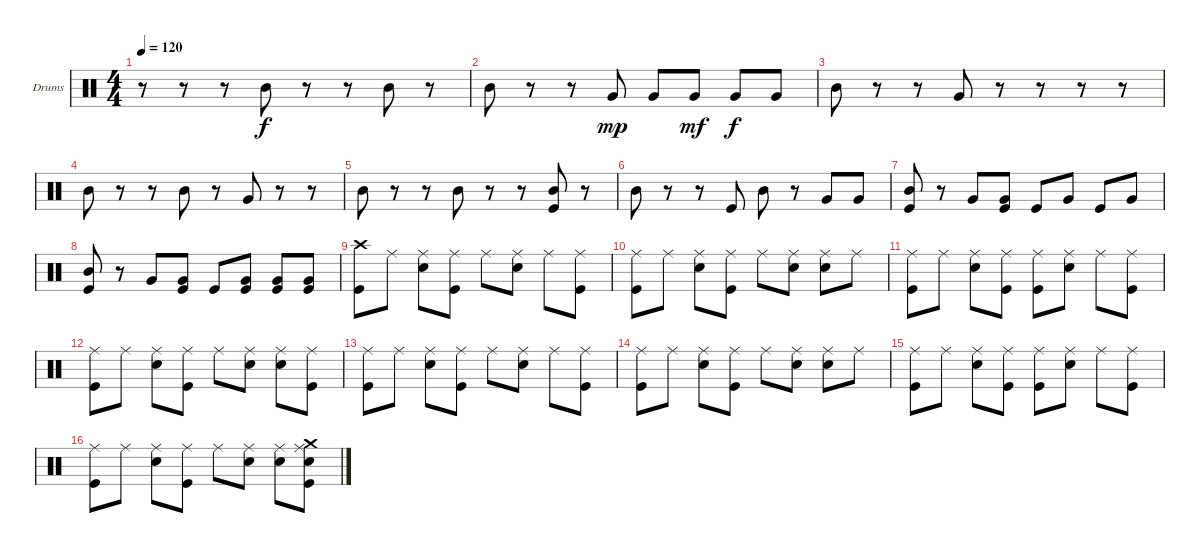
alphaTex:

\defaultSystemsLayout 4
\bracketExtendMode groupsimilarinstruments
\firstSystemTrackNameOrientation horizontal
\otherSystemsTrackNameOrientation horizontal
\track ("Drumkit" "Drums") {instrument percussion}
\staff {score}
\articulation defaults
\ts (4 4)
\tempo 120
\clef neutral
\ks c
r.8{dy f} r.8 r.8 "Mid Tom (hit)".8 r.8 r.8 "Mid Tom (hit)".8 r.8 |
"Mid Tom (hit)".8 r.8 r.8 "Very Low Tom (hit)".8{dy mp} "Very Low Tom (hit)".8 "Very Low Tom (hit)".8{dy mf} "Very Low Tom (hit)".8{dy f} "Very Low Tom (hit)".8 |
"Mid Tom (hit)".8 r.8 r.8 "Very Low Tom (hit)".8 r.8 r.8 r.8 r.8 |
"Mid Tom (hit)".8 r.8 r.8 "Mid Tom (hit)".8 r.8 "Very Low Tom (hit)".8 r.8 r.8 |
"Mid Tom (hit)".8 r.8 r.8 "Mid Tom (hit)".8 r.8 r.8 ("Kick (hit)" "Mid Tom (hit)").8 r.8 |
"Mid Tom (hit)".8 r.8 r.8 "Kick (hit)".8 "Mid Tom (hit)".8 r.8 "Very Low Tom (hit)".8 "Very Low Tom (hit)".8 |
("Mid Tom (hit)" "Kick (hit)").8 r.8 "Very Low Tom (hit)".8 ("Very Low Tom (hit)" "Kick (hit)").8 "Kick (hit)".8 "Very Low Tom (hit)".8 "Kick (hit)".8 "Very Low Tom (hit)".8 |
("Mid Tom (hit)" "Kick (hit)").8 r.8 "Very Low Tom (hit)".8 ("Very Low Tom (hit)" "Kick (hit)").8 "Kick (hit)".8 ("Very Low Tom (hit)" "Kick (hit)").8 ("Kick (hit)" "Very Low Tom (hit)").8 ("Very Low Tom (hit)" "Kick (hit)").8 |
("Kick (hit)" "Crash high (hit)").8 "Ride (middle)".8 ("Snare (hit) 2" "Ride (middle)").8 ("Kick (hit)" "Ride (middle)").8 "Ride (middle)".8 ("Snare (hit) 2" "Ride (middle)").8 "Ride (middle)".8 ("Ride (middle)" "Kick (hit)").8 |
("Kick (hit)" "Ride (middle)").8 "Ride (middle)".8 ("Snare (hit) 2" "Ride (middle)").8 ("Kick (hit)" "Ride (middle)").8 "Ride (middle)".8 ("Ride (middle)" "Snare (hit) 2").8 ("Ride (middle)" "Snare (hit) 2").8 "Ride (middle)".8 |
("Kick (hit)" "Ride (middle)").8 "Ride (middle)".8 ("Snare (hit) 2" "Ride (middle)").8 ("Kick (hit)" "Ride (middle)").8 ("Ride (middle)" "Kick (hit)").8 ("Snare (hit) 2" "Ride (middle)").8 "Ride (middle)".8 ("Ride (middle)" "Kick (hit)").8 |
("Kick (hit)" "Ride (middle)").8 "Ride (middle)".8 ("Snare (hit) 2" "Ride (middle)").8 ("Kick (hit)" "Ride (middle)").8 "Ride (middle)".8 ("Ride (middle)" "Snare (hit) 2").8 ("Ride (middle)" "Snare (hit) 2").8 ("Ride (middle)" "Kick (hit)").8 |
("Kick (hit)" "Ride (middle)").8 "Ride (middle)".8 ("Snare (hit) 2" "Ride (middle)").8 ("Kick (hit)" "Ride (middle)").8 "Ride (middle)".8 ("Snare (hit) 2" "Ride (middle)").8 "Ride (middle)".8 ("Ride (middle)" "Kick (hit)").8 |
("Kick (hit)" "Ride (middle)").8 "Ride (middle)".8 ("Snare (hit) 2" "Ride (middle)").8 ("Kick (hit)" "Ride (middle)").8 "Ride (middle)".8 ("Ride (middle)" "Snare (hit) 2").8 ("Ride (middle)" "Snare (hit) 2").8 "Ride (middle)".8 |
("Kick (hit)" "Ride (middle)").8 "Ride (middle)".8 ("Snare (hit) 2" "Ride (middle)").8 ("Kick (hit)" "Ride (middle)").8 ("Ride (middle)" "Kick (hit)").8 ("Snare (hit) 2" "Ride (middle)").8 "Ride (middle)".8 ("Ride (middle)" "Kick (hit)").8 |
("Kick (hit)" "Ride (middle)").8 "Ride (middle)".8 ("Snare (hit) 2" "Ride (middle)").8 ("Kick (hit)" "Ride (middle)").8 "Ride (middle)".8 ("Ride (middle)" "Snare (hit) 2").8 ("Ride (middle)" "Snare (hit) 2").8 ("Ride (middle)" "Kick (hit)" "Crash medium (hit)" "Snare (hit) 2").8
